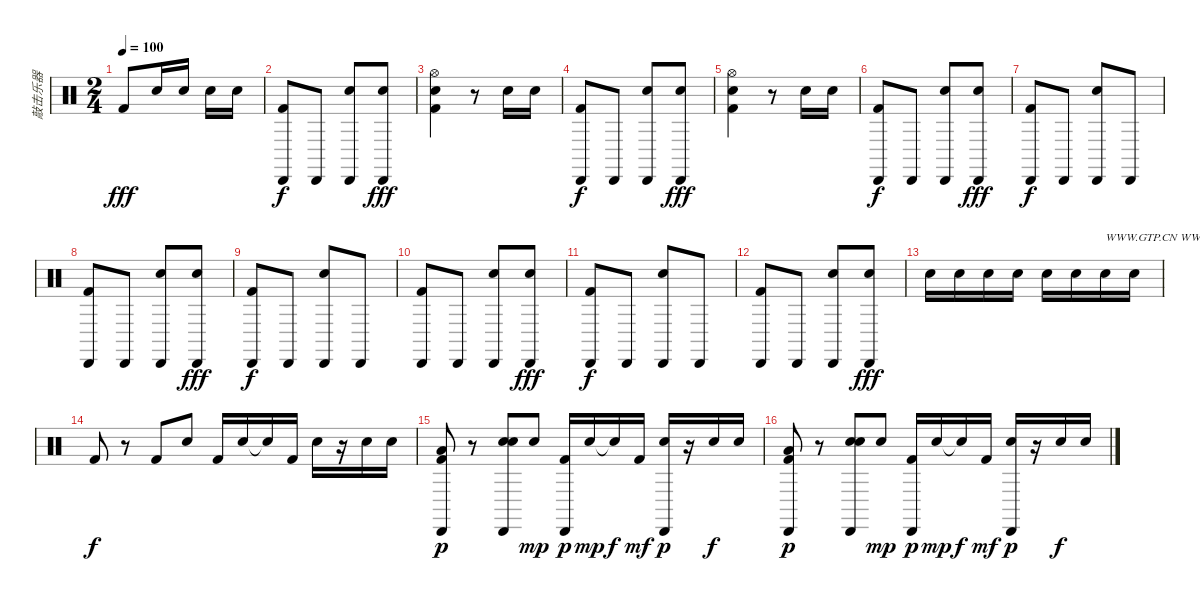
\track ("敲击乐器" "敲击乐器") {instrument percussion}
\staff {score}
\articulation defaults
\ts (2 4)
\tempo 100
\clef neutral
\ks c "Kick (hit) 2".8{dy fff} "Snare (hit) 2".16 "Electric Snare (hit)".16 "Snare (hit) 2".16 "Snare (hit) 2".16
|
("Cabasa (hit)" "Kick (hit) 2").8{dy f} "Cabasa (hit)".8 ("Cabasa (hit)" "Snare (hit) 2").8 ("Cabasa (hit)" "Electric Snare (hit)").8{dy fff} |
("Kick (hit) 2" "Snare (hit) 2" "Hi-Hat (open)").4 r.8 "Snare (hit) 2".16 "Snare (hit) 2".16 |
("Cabasa (hit)" "Kick (hit) 2").8{dy f} "Cabasa (hit)".8 ("Cabasa (hit)" "Snare (hit) 2").8 ("Cabasa (hit)" "Electric Snare (hit)").8{dy fff} |
("Kick (hit) 2" "Snare (hit) 2" "Hi-Hat (open)").4 r.8 "Snare (hit) 2".16 "Snare (hit) 2".16 |
("Cabasa (hit)" "Kick (hit) 2").8{dy f} "Cabasa (hit)".8 ("Cabasa (hit)" "Snare (hit) 2").8 ("Cabasa (hit)" "Electric Snare (hit)").8{dy fff} |
("Cabasa (hit)" "Kick (hit) 2").8{dy f} "Cabasa (hit)".8 ("Cabasa (hit)" "Snare (hit) 2").8 "Cabasa (hit)".8 |
("Cabasa (hit)" "Kick (hit) 2").8 "Cabasa (hit)".8 ("Cabasa (hit)" "Snare (hit) 2").8 ("Cabasa (hit)" "Electric Snare (hit)").8{dy fff} |
("Cabasa (hit)" "Kick (hit) 2").8{dy f} "Cabasa (hit)".8 ("Cabasa (hit)" "Snare (hit) 2").8 "Cabasa (hit)".8 |
("Cabasa (hit)" "Kick (hit) 2").8 "Cabasa (hit)".8 ("Cabasa (hit)" "Snare (hit) 2").8 ("Cabasa (hit)" "Electric Snare (hit)").8{dy fff} |
("Cabasa (hit)" "Kick (hit) 2").8{dy f} "Cabasa (hit)".8 ("Cabasa (hit)" "Snare (hit) 2").8 "Cabasa (hit)".8 |
("Cabasa (hit)" "Kick (hit) 2").8 "Cabasa (hit)".8 ("Cabasa (hit)" "Snare (hit) 2").8 ("Cabasa (hit)" "Electric Snare (hit)").8{dy fff} |
"Snare (hit) 2".16 "Snare (hit) 2".16 "Snare (hit) 2".16 "Snare (hit) 2".16 "Snare (hit) 2".16 "Snare (hit) 2".16 "Snare (hit) 2".16{txt "WWW.GTP.CN WWW.51GTP.COM联合为您提供优秀的GTP!"} "Snare (hit) 2".16 |
"Kick (hit) 2".8{dy f} r.8 "Kick (hit) 2".8 "Snare (hit) 2".8 "Kick (hit) 2".16 "Snare (hit) 2".16 "Snare (hit) 2"{t}.16 "Kick (hit) 2".16 "Snare (hit) 2".16 r.16 "Electric Snare (hit)".16 "Snare (hit) 2".16 |
("Kick (hit) 2" "Low Floor Tom (hit)" "Cabasa (hit)").8{dy p} r.8 ("Snare (hit) 2" "Electric Snare (hit)" "Cabasa (hit)").8 "Snare (hit) 2".8{dy mp} ("Kick (hit) 2" "Cabasa (hit)").16{dy p} "Snare (hit) 2".16{dy mp} "Snare (hit) 2"{t}.16{dy f} "Kick (hit) 2".16{dy mf} ("Snare (hit) 2" "Cabasa (hit)").16{dy p} r.16 "Electric Snare (hit)".16{dy f} "Snare (hit) 2".16 |
("Kick (hit) 2" "Low Floor Tom (hit)" "Cabasa (hit)").8{dy p} r.8 ("Snare (hit) 2" "Electric Snare (hit)" "Cabasa (hit)").8 "Snare (hit) 2".8{dy mp} ("Kick (hit) 2" "Cabasa (hit)").16{dy p} "Snare (hit) 2".16{dy mp} "Snare (hit) 2"{t}.16{dy f} "Kick (hit) 2".16{dy mf} ("Snare (hit) 2" "Cabasa (hit)").16{dy p} r.16 "Electric Snare (hit)".16{dy f} "Snare (hit) 2".16
